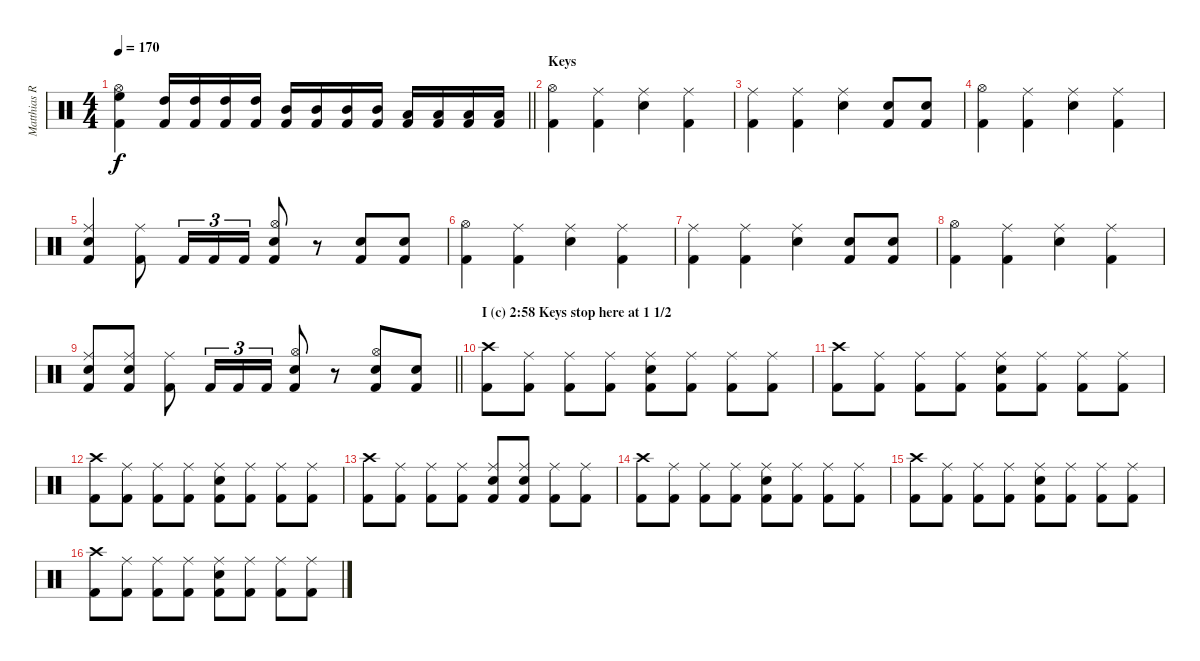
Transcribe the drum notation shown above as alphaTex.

\track ("Matthias R." "Matthias R") {instrument percussion}
\staff {score}
\articulation defaults
\ts (4 4)
\tempo 170
\clef neutral
\barLineRight lightlight
\ks c
("High Floor Tom (hit)" "Kick (hit) 2" "Hi-Hat (open)").4{dy f} ("High Tom (hit)" "Kick (hit) 2").16 ("High Tom (hit)" "Kick (hit) 2").16 ("High Tom (hit)" "Kick (hit) 2").16 ("High Tom (hit)" "Kick (hit) 2").16 ("Mid Tom (hit)" "Kick (hit) 2").16 ("Mid Tom (hit)" "Kick (hit) 2").16 ("Mid Tom (hit)" "Kick (hit) 2").16 ("Mid Tom (hit)" "Kick (hit) 2").16 ("Low Tom (hit)" "Kick (hit) 2").16 ("Low Tom (hit)" "Kick (hit) 2").16 ("Low Tom (hit)" "Kick (hit) 2").16 ("Low Tom (hit)" "Kick (hit) 2").16 |
\section ("" "Keys")
("Kick (hit) 2" "Hi-Hat (open)").4 ("Kick (hit) 2" "Ride (middle)").4 ("Snare (hit) 2" "Ride (middle)").4 ("Kick (hit) 2" "Ride (middle)").4 |
("Kick (hit) 2" "Ride (middle)").4 ("Kick (hit) 2" "Ride (middle)").4 ("Snare (hit) 2" "Ride (middle)").4 ("Kick (hit) 2" "Snare (hit) 2").8 ("Kick (hit) 2" "Snare (hit) 2").8 |
("Kick (hit) 2" "Hi-Hat (open)").4 ("Kick (hit) 2" "Ride (middle)").4 ("Snare (hit) 2" "Ride (middle)").4 ("Kick (hit) 2" "Ride (middle)").4 |
("Kick (hit) 2" "Snare (hit) 2" "Ride (middle)").4 ("Kick (hit) 2" "Ride (middle)").8 "Kick (hit) 2".16{tu (3 2)} "Kick (hit) 2".16{tu (3 2)} "Kick (hit) 2".16{tu (3 2)} ("Kick (hit) 2" "Snare (hit) 2" "Hi-Hat (open)").8 r.8 ("Kick (hit) 2" "Snare (hit) 2").8 ("Kick (hit) 2" "Snare (hit) 2").8 |
("Kick (hit) 2" "Hi-Hat (open)").4 ("Kick (hit) 2" "Ride (middle)").4 ("Snare (hit) 2" "Ride (middle)").4 ("Kick (hit) 2" "Ride (middle)").4 |
("Kick (hit) 2" "Ride (middle)").4 ("Kick (hit) 2" "Ride (middle)").4 ("Snare (hit) 2" "Ride (middle)").4 ("Kick (hit) 2" "Snare (hit) 2").8 ("Kick (hit) 2" "Snare (hit) 2").8 |
("Kick (hit) 2" "Hi-Hat (open)").4 ("Kick (hit) 2" "Ride (middle)").4 ("Snare (hit) 2" "Ride (middle)").4 ("Kick (hit) 2" "Ride (middle)").4 |
\barLineRight lightlight
("Kick (hit) 2" "Snare (hit) 2" "Ride (middle)").8 ("Kick (hit) 2" "Snare (hit) 2" "Ride (middle)").8 ("Kick (hit) 2" "Ride (middle)").8 "Kick (hit) 2".16{tu (3 2)} "Kick (hit) 2".16{tu (3 2)} "Kick (hit) 2".16{tu (3 2)} ("Kick (hit) 2" "Snare (hit) 2" "Hi-Hat (open)").8 r.8 ("Kick (hit) 2" "Snare (hit) 2" "Hi-Hat (open)").8 ("Kick (hit) 2" "Snare (hit) 2").8 |
\section ("" "I (c) 2:58 Keys stop here at 1 1/2")
("Kick (hit) 2" "Crash high (hit)").8 ("Kick (hit) 2" "Ride (middle)").8 ("Kick (hit) 2" "Ride (middle)").8 ("Kick (hit) 2" "Ride (middle)").8 ("Kick (hit) 2" "Snare (hit) 2" "Ride (middle)").8 ("Kick (hit) 2" "Ride (middle)").8 ("Kick (hit) 2" "Ride (middle)").8 ("Kick (hit) 2" "Ride (middle)").8 |
("Kick (hit) 2" "Crash high (hit)").8 ("Kick (hit) 2" "Ride (middle)").8 ("Kick (hit) 2" "Ride (middle)").8 ("Kick (hit) 2" "Ride (middle)").8 ("Kick (hit) 2" "Snare (hit) 2" "Ride (middle)").8 ("Kick (hit) 2" "Ride (middle)").8 ("Kick (hit) 2" "Ride (middle)").8 ("Kick (hit) 2" "Ride (middle)").8 |
("Kick (hit) 2" "Crash high (hit)").8 ("Kick (hit) 2" "Ride (middle)").8 ("Kick (hit) 2" "Ride (middle)").8 ("Kick (hit) 2" "Ride (middle)").8 ("Kick (hit) 2" "Snare (hit) 2" "Ride (middle)").8 ("Kick (hit) 2" "Ride (middle)").8 ("Kick (hit) 2" "Ride (middle)").8 ("Kick (hit) 2" "Ride (middle)").8 |
("Kick (hit) 2" "Crash high (hit)").8 ("Kick (hit) 2" "Ride (middle)").8 ("Kick (hit) 2" "Ride (middle)").8 ("Kick (hit) 2" "Ride (middle)").8 ("Kick (hit) 2" "Snare (hit) 2" "Ride (middle)").8 ("Kick (hit) 2" "Snare (hit) 2" "Ride (middle)").8 ("Kick (hit) 2" "Ride (middle)").8 ("Kick (hit) 2" "Ride (middle)").8 |
("Kick (hit) 2" "Crash high (hit)").8 ("Kick (hit) 2" "Ride (middle)").8 ("Kick (hit) 2" "Ride (middle)").8 ("Kick (hit) 2" "Ride (middle)").8 ("Kick (hit) 2" "Snare (hit) 2" "Ride (middle)").8 ("Kick (hit) 2" "Ride (middle)").8 ("Kick (hit) 2" "Ride (middle)").8 ("Kick (hit) 2" "Ride (middle)").8 |
("Kick (hit) 2" "Crash high (hit)").8 ("Kick (hit) 2" "Ride (middle)").8 ("Kick (hit) 2" "Ride (middle)").8 ("Kick (hit) 2" "Ride (middle)").8 ("Kick (hit) 2" "Snare (hit) 2" "Ride (middle)").8 ("Kick (hit) 2" "Ride (middle)").8 ("Kick (hit) 2" "Ride (middle)").8 ("Kick (hit) 2" "Ride (middle)").8 |
("Kick (hit) 2" "Crash high (hit)").8 ("Kick (hit) 2" "Ride (middle)").8 ("Kick (hit) 2" "Ride (middle)").8 ("Kick (hit) 2" "Ride (middle)").8 ("Kick (hit) 2" "Snare (hit) 2" "Ride (middle)").8 ("Kick (hit) 2" "Ride (middle)").8 ("Kick (hit) 2" "Ride (middle)").8 ("Kick (hit) 2" "Ride (middle)").8
